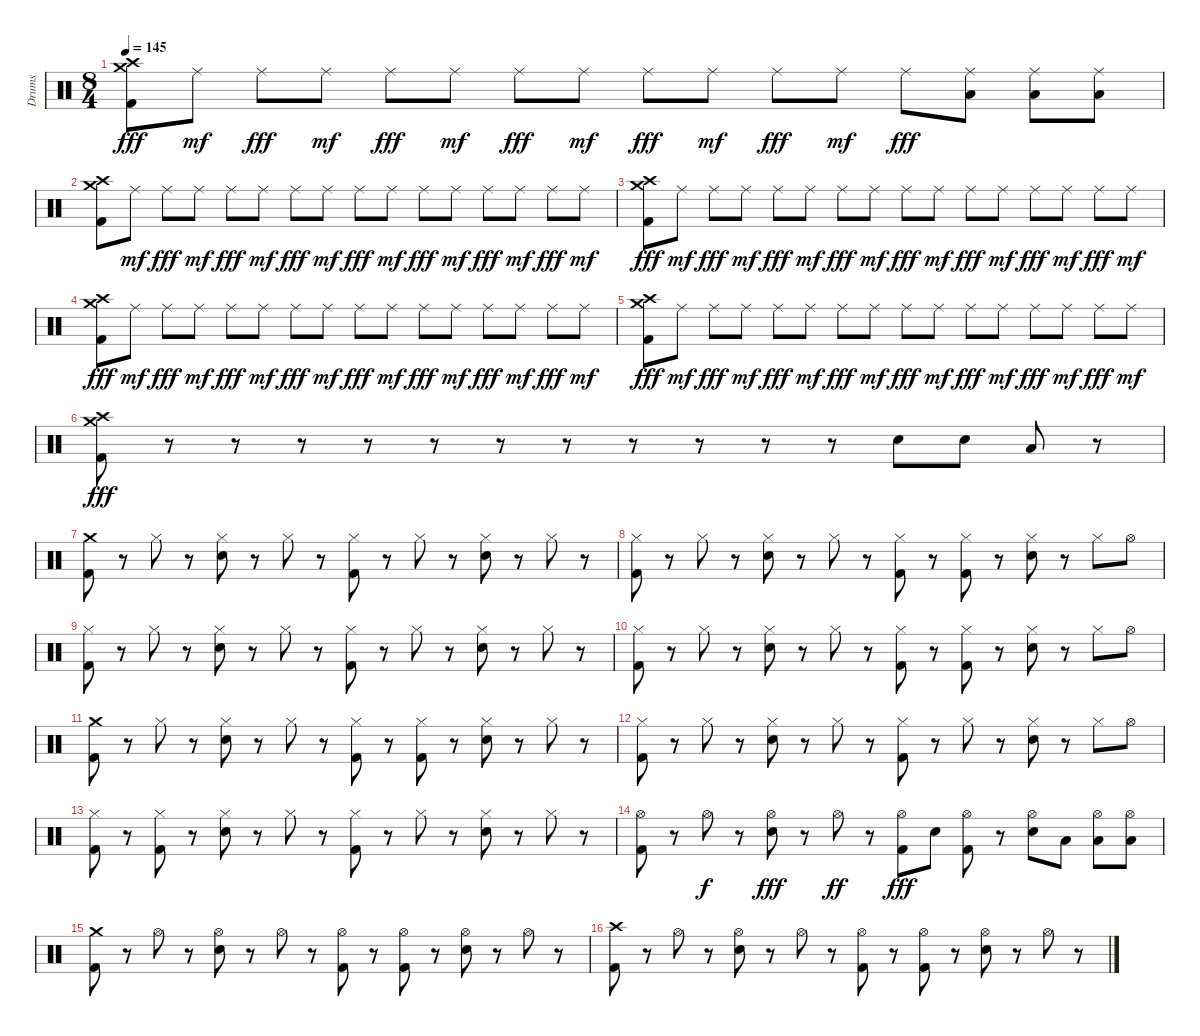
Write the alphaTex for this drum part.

\track ("Drums" "Drums") {instrument percussion}
\staff {score}
\articulation defaults
\ts (8 4)
\tempo 145
\clef neutral
\ks c
("Crash high (hit)" "Crash medium (hit)" "Kick (hit) 2").8{dy fff} "Ride (middle)".8{dy mf} "Ride (middle)".8{dy fff} "Ride (middle)".8{dy mf} "Ride (middle)".8{dy fff} "Ride (middle)".8{dy mf} "Ride (middle)".8{dy fff} "Ride (middle)".8{dy mf} "Ride (middle)".8{dy fff} "Ride (middle)".8{dy mf} "Ride (middle)".8{dy fff} "Ride (middle)".8{dy mf} "Ride (middle)".8{dy fff} ("Ride (middle)" "Low Tom (hit)").8 ("Ride (middle)" "Low Tom (hit)").8 ("Ride (middle)" "Low Floor Tom (hit)").8 |
("Crash high (hit)" "Crash medium (hit)" "Kick (hit) 2").8 "Ride (middle)".8{dy mf} "Ride (middle)".8{dy fff} "Ride (middle)".8{dy mf} "Ride (middle)".8{dy fff} "Ride (middle)".8{dy mf} "Ride (middle)".8{dy fff} "Ride (middle)".8{dy mf} "Ride (middle)".8{dy fff} "Ride (middle)".8{dy mf} "Ride (middle)".8{dy fff} "Ride (middle)".8{dy mf} "Ride (middle)".8{dy fff} "Ride (middle)".8{dy mf} "Ride (middle)".8{dy fff} "Ride (middle)".8{dy mf} |
("Crash high (hit)" "Crash medium (hit)" "Kick (hit) 2").8{dy fff} "Ride (middle)".8{dy mf} "Ride (middle)".8{dy fff} "Ride (middle)".8{dy mf} "Ride (middle)".8{dy fff} "Ride (middle)".8{dy mf} "Ride (middle)".8{dy fff} "Ride (middle)".8{dy mf} "Ride (middle)".8{dy fff} "Ride (middle)".8{dy mf} "Ride (middle)".8{dy fff} "Ride (middle)".8{dy mf} "Ride (middle)".8{dy fff} "Ride (middle)".8{dy mf} "Ride (middle)".8{dy fff} "Ride (middle)".8{dy mf} |
("Crash high (hit)" "Crash medium (hit)" "Kick (hit) 2").8{dy fff} "Ride (middle)".8{dy mf} "Ride (middle)".8{dy fff} "Ride (middle)".8{dy mf} "Ride (middle)".8{dy fff} "Ride (middle)".8{dy mf} "Ride (middle)".8{dy fff} "Ride (middle)".8{dy mf} "Ride (middle)".8{dy fff} "Ride (middle)".8{dy mf} "Ride (middle)".8{dy fff} "Ride (middle)".8{dy mf} "Ride (middle)".8{dy fff} "Ride (middle)".8{dy mf} "Ride (middle)".8{dy fff} "Ride (middle)".8{dy mf} |
("Crash high (hit)" "Crash medium (hit)" "Kick (hit) 2").8{dy fff} "Ride (middle)".8{dy mf} "Ride (middle)".8{dy fff} "Ride (middle)".8{dy mf} "Ride (middle)".8{dy fff} "Ride (middle)".8{dy mf} "Ride (middle)".8{dy fff} "Ride (middle)".8{dy mf} "Ride (middle)".8{dy fff} "Ride (middle)".8{dy mf} "Ride (middle)".8{dy fff} "Ride (middle)".8{dy mf} "Ride (middle)".8{dy fff} "Ride (middle)".8{dy mf} "Ride (middle)".8{dy fff} "Ride (middle)".8{dy mf} |
("Crash high (hit)" "Crash medium (hit)" "Kick (hit) 2").8{dy fff} r.8 r.8 r.8 r.8 r.8 r.8 r.8 r.8 r.8 r.8 r.8 "Snare (hit) 2".8 "Snare (hit) 2".8 "Low Tom (hit)".8 r.8 |
("Crash medium (hit)" "Kick (hit) 2").8 r.8 "Hi-Hat (closed)".8 r.8 ("Hi-Hat (closed)" "Snare (hit) 2").8 r.8 "Hi-Hat (closed)".8 r.8 ("Hi-Hat (closed)" "Kick (hit) 2").8 r.8 "Hi-Hat (closed)".8 r.8 ("Hi-Hat (closed)" "Snare (hit) 2").8 r.8 "Hi-Hat (closed)".8 r.8 |
("Hi-Hat (closed)" "Kick (hit) 2").8 r.8 "Hi-Hat (closed)".8 r.8 ("Hi-Hat (closed)" "Snare (hit) 2").8 r.8 "Hi-Hat (closed)".8 r.8 ("Hi-Hat (closed)" "Kick (hit) 2").8 r.8 ("Hi-Hat (closed)" "Kick (hit) 2").8 r.8 ("Hi-Hat (closed)" "Snare (hit) 2").8 r.8 "Hi-Hat (closed)".8 "Hi-Hat (open)".8 |
("Hi-Hat (closed)" "Kick (hit) 2").8 r.8 "Hi-Hat (closed)".8 r.8 ("Hi-Hat (closed)" "Snare (hit) 2").8 r.8 "Hi-Hat (closed)".8 r.8 ("Hi-Hat (closed)" "Kick (hit) 2").8 r.8 "Hi-Hat (closed)".8 r.8 ("Hi-Hat (closed)" "Snare (hit) 2").8 r.8 "Hi-Hat (closed)".8 r.8 |
("Hi-Hat (closed)" "Kick (hit) 2").8 r.8 "Hi-Hat (closed)".8 r.8 ("Hi-Hat (closed)" "Snare (hit) 2").8 r.8 "Hi-Hat (closed)".8 r.8 ("Hi-Hat (closed)" "Kick (hit) 2").8 r.8 ("Hi-Hat (closed)" "Kick (hit) 2").8 r.8 ("Hi-Hat (closed)" "Snare (hit) 2").8 r.8 "Hi-Hat (closed)".8 "Hi-Hat (open)".8 |
("Crash medium (hit)" "Kick (hit) 2").8 r.8 "Hi-Hat (closed)".8 r.8 ("Hi-Hat (closed)" "Snare (hit) 2").8 r.8 "Hi-Hat (closed)".8 r.8 ("Hi-Hat (closed)" "Kick (hit) 2").8 r.8 ("Hi-Hat (closed)" "Kick (hit) 2").8 r.8 ("Hi-Hat (closed)" "Snare (hit) 2").8 r.8 "Hi-Hat (closed)".8 r.8 |
("Hi-Hat (closed)" "Kick (hit) 2").8 r.8 "Hi-Hat (closed)".8 r.8 ("Hi-Hat (closed)" "Snare (hit) 2").8 r.8 "Hi-Hat (closed)".8 r.8 ("Hi-Hat (closed)" "Kick (hit) 2").8 r.8 "Hi-Hat (closed)".8 r.8 ("Hi-Hat (closed)" "Snare (hit) 2").8 r.8 "Hi-Hat (closed)".8 "Hi-Hat (open)".8 |
("Hi-Hat (closed)" "Kick (hit) 2").8 r.8 ("Hi-Hat (closed)" "Kick (hit) 2").8 r.8 ("Hi-Hat (closed)" "Snare (hit) 2").8 r.8 "Hi-Hat (closed)".8 r.8 ("Hi-Hat (closed)" "Kick (hit) 2").8 r.8 "Hi-Hat (closed)".8 r.8 ("Hi-Hat (closed)" "Snare (hit) 2").8 r.8 "Hi-Hat (closed)".8 r.8 |
("Hi-Hat (open)" "Kick (hit) 2").8 r.8 "Hi-Hat (open)".8{dy f} r.8 ("Hi-Hat (open)" "Snare (hit) 2").8{dy fff} r.8 "Hi-Hat (open)".8{dy ff} r.8 ("Hi-Hat (open)" "Kick (hit) 2").8{dy fff} "Snare (hit) 2".8 ("Hi-Hat (open)" "Kick (hit) 2").8 r.8 ("Hi-Hat (open)" "Snare (hit) 2").8 "Low Tom (hit)".8 ("Hi-Hat (open)" "Low Tom (hit)").8 ("Hi-Hat (open)" "Low Floor Tom (hit)").8 |
("Crash medium (hit)" "Kick (hit) 2").8 r.8 "Hi-Hat (open)".8 r.8 ("Hi-Hat (open)" "Snare (hit) 2").8 r.8 "Hi-Hat (open)".8 r.8 ("Hi-Hat (open)" "Kick (hit) 2").8 r.8 ("Hi-Hat (open)" "Kick (hit) 2").8 r.8 ("Hi-Hat (open)" "Snare (hit) 2").8 r.8 "Hi-Hat (open)".8 r.8 |
("Crash high (hit)" "Kick (hit) 2").8 r.8 "Hi-Hat (open)".8 r.8 ("Hi-Hat (open)" "Snare (hit) 2").8 r.8 "Hi-Hat (open)".8 r.8 ("Hi-Hat (open)" "Kick (hit) 2").8 r.8 ("Hi-Hat (open)" "Kick (hit) 2").8 r.8 ("Hi-Hat (open)" "Snare (hit) 2").8 r.8 "Hi-Hat (open)".8 r.8
